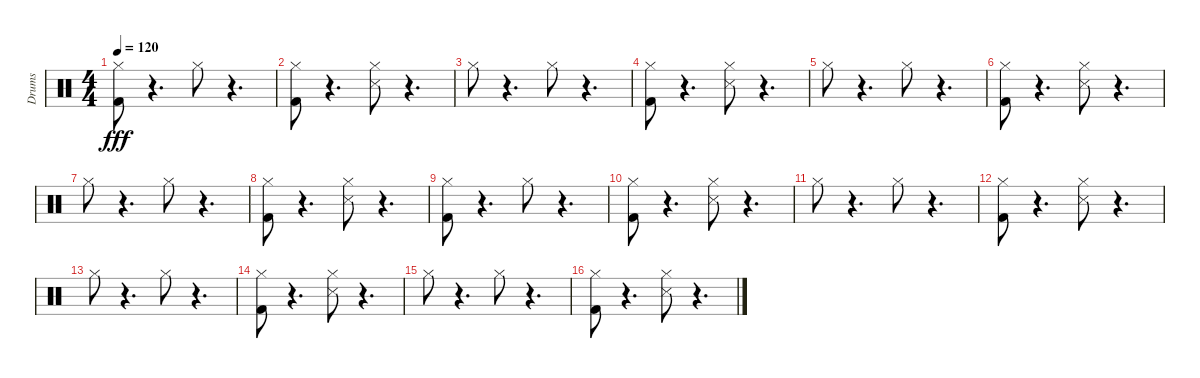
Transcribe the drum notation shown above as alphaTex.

\track ("Drums" "Drums") {instrument percussion}
\staff {score}
\articulation defaults
\ts (4 4)
\tempo 120
\clef neutral
\ks c
("Kick (hit) 2" "Hi-Hat (closed)").8{dy fff} r.4{d} "Hi-Hat (closed)".8 r.4{d} |
("Hi-Hat (closed)" "Kick (hit) 2").8 r.4{d} ("Hi-Hat (closed)" "Snare (side stick) 3").8 r.4{d} |
"Hi-Hat (closed)".8 r.4{d} "Hi-Hat (closed)".8 r.4{d} |
("Hi-Hat (closed)" "Kick (hit) 2").8 r.4{d} ("Snare (side stick) 3" "Hi-Hat (closed)").8 r.4{d} |
"Hi-Hat (closed)".8 r.4{d} "Hi-Hat (closed)".8 r.4{d} |
("Hi-Hat (closed)" "Kick (hit) 2").8 r.4{d} ("Snare (side stick) 3" "Hi-Hat (closed)").8 r.4{d} |
"Hi-Hat (closed)".8 r.4{d} "Hi-Hat (closed)".8 r.4{d} |
("Hi-Hat (closed)" "Kick (hit) 2").8 r.4{d} ("Snare (side stick) 3" "Hi-Hat (closed)").8 r.4{d} |
("Kick (hit) 2" "Hi-Hat (closed)").8 r.4{d} "Hi-Hat (closed)".8 r.4{d} |
("Hi-Hat (closed)" "Kick (hit) 2").8 r.4{d} ("Hi-Hat (closed)" "Snare (side stick) 3").8 r.4{d} |
"Hi-Hat (closed)".8 r.4{d} "Hi-Hat (closed)".8 r.4{d} |
("Hi-Hat (closed)" "Kick (hit) 2").8 r.4{d} ("Snare (side stick) 3" "Hi-Hat (closed)").8 r.4{d} |
"Hi-Hat (closed)".8 r.4{d} "Hi-Hat (closed)".8 r.4{d} |
("Hi-Hat (closed)" "Kick (hit) 2").8 r.4{d} ("Snare (side stick) 3" "Hi-Hat (closed)").8 r.4{d} |
"Hi-Hat (closed)".8 r.4{d} "Hi-Hat (closed)".8 r.4{d} |
("Hi-Hat (closed)" "Kick (hit) 2").8 r.4{d} ("Snare (side stick) 3" "Hi-Hat (closed)").8 r.4{d}
